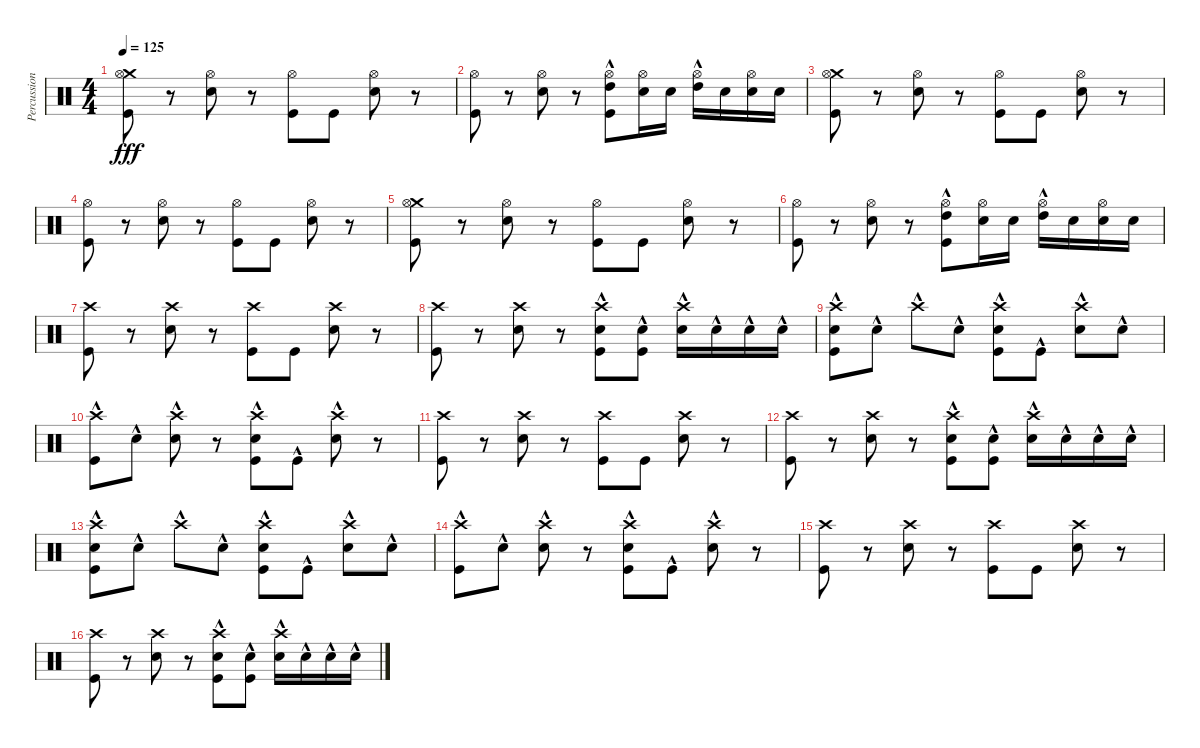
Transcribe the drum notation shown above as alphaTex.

\track ("Percussion" "Percussion") {instrument percussion}
\staff {score}
\articulation defaults
\ts (4 4)
\tempo 125
\clef neutral
\ks c
("Crash medium (hit)" "Hi-Hat (open)" "Kick (hit)").8{dy fff} r.8 ("Snare (hit) 2" "Hi-Hat (open)").8 r.8 ("Hi-Hat (open)" "Kick (hit)").8 "Kick (hit)".8 ("Snare (hit) 2" "Hi-Hat (open)").8 r.8 |
("Hi-Hat (open)" "Kick (hit)").8 r.8 ("Snare (hit) 2" "Hi-Hat (open)").8 r.8 ("High Tom (hit)"{hac} "Hi-Hat (open)" "Kick (hit)").8 ("Snare (hit) 2" "Hi-Hat (open)").16 "Snare (hit) 2".16 ("High Tom (hit)"{hac} "Hi-Hat (open)").16 "Snare (hit) 2".16 ("Snare (hit) 2" "Hi-Hat (open)").16 "Snare (hit) 2".16 |
("Crash medium (hit)" "Hi-Hat (open)" "Kick (hit)").8 r.8 ("Snare (hit) 2" "Hi-Hat (open)").8 r.8 ("Hi-Hat (open)" "Kick (hit)").8 "Kick (hit)".8 ("Snare (hit) 2" "Hi-Hat (open)").8 r.8 |
("Hi-Hat (open)" "Kick (hit)").8 r.8 ("Snare (hit) 2" "Hi-Hat (open)").8 r.8 ("Hi-Hat (open)" "Kick (hit)").8 "Kick (hit)".8 ("Snare (hit) 2" "Hi-Hat (open)").8 r.8 |
("Crash medium (hit)" "Hi-Hat (open)" "Kick (hit)").8 r.8 ("Snare (hit) 2" "Hi-Hat (open)").8 r.8 ("Hi-Hat (open)" "Kick (hit)").8 "Kick (hit)".8 ("Snare (hit) 2" "Hi-Hat (open)").8 r.8 |
("Hi-Hat (open)" "Kick (hit)").8 r.8 ("Snare (hit) 2" "Hi-Hat (open)").8 r.8 ("High Tom (hit)"{hac} "Hi-Hat (open)" "Kick (hit)").8 ("Snare (hit) 2" "Hi-Hat (open)").16 "Snare (hit) 2".16 ("High Tom (hit)"{hac} "Hi-Hat (open)").16 "Snare (hit) 2".16 ("Snare (hit) 2" "Hi-Hat (open)").16 "Snare (hit) 2".16 |
("Kick (hit)" "Crash high (hit)").8 r.8 ("Snare (hit) 2" "Crash high (hit)").8 r.8 ("Kick (hit)" "Crash high (hit)").8 "Kick (hit)".8 ("Snare (hit) 2" "Crash high (hit)").8 r.8 |
("Kick (hit)" "Crash high (hit)").8 r.8 ("Snare (hit) 2" "Crash high (hit)").8 r.8 ("Kick (hit)"{hac} "Snare (hit) 2"{hac} "Crash high (hit)"{hac}).8 ("Kick (hit)"{hac} "Snare (hit) 2"{hac}).8 ("Snare (hit) 2"{hac} "Crash high (hit)"{hac}).16 "Snare (hit) 2"{hac}.16 "Snare (hit) 2"{hac}.16 "Snare (hit) 2"{hac}.16 |
("Kick (hit)"{hac} "Snare (hit) 2"{hac} "Crash high (hit)"{hac}).8 "Snare (hit) 2"{hac}.8 "Crash high (hit)"{hac}.8 "Snare (hit) 2"{hac}.8 ("Kick (hit)"{hac} "Snare (hit) 2"{hac} "Crash high (hit)"{hac}).8 "Kick (hit)"{hac}.8 ("Snare (hit) 2"{hac} "Crash high (hit)"{hac}).8 "Snare (hit) 2"{hac}.8 |
("Kick (hit)"{hac} "Crash high (hit)"{hac}).8 "Snare (hit) 2"{hac}.8 ("Snare (hit) 2"{hac} "Crash high (hit)"{hac}).8 r.8 ("Kick (hit)"{hac} "Snare (hit) 2"{hac} "Crash high (hit)"{hac}).8 "Kick (hit)"{hac}.8 ("Snare (hit) 2"{hac} "Crash high (hit)"{hac}).8 r.8 |
("Kick (hit)" "Crash high (hit)").8 r.8 ("Snare (hit) 2" "Crash high (hit)").8 r.8 ("Kick (hit)" "Crash high (hit)").8 "Kick (hit)".8 ("Snare (hit) 2" "Crash high (hit)").8 r.8 |
("Kick (hit)" "Crash high (hit)").8 r.8 ("Snare (hit) 2" "Crash high (hit)").8 r.8 ("Kick (hit)"{hac} "Snare (hit) 2"{hac} "Crash high (hit)"{hac}).8 ("Kick (hit)"{hac} "Snare (hit) 2"{hac}).8 ("Snare (hit) 2"{hac} "Crash high (hit)"{hac}).16 "Snare (hit) 2"{hac}.16 "Snare (hit) 2"{hac}.16 "Snare (hit) 2"{hac}.16 |
("Kick (hit)"{hac} "Snare (hit) 2"{hac} "Crash high (hit)"{hac}).8 "Snare (hit) 2"{hac}.8 "Crash high (hit)"{hac}.8 "Snare (hit) 2"{hac}.8 ("Kick (hit)"{hac} "Snare (hit) 2"{hac} "Crash high (hit)"{hac}).8 "Kick (hit)"{hac}.8 ("Snare (hit) 2"{hac} "Crash high (hit)"{hac}).8 "Snare (hit) 2"{hac}.8 |
("Kick (hit)"{hac} "Crash high (hit)"{hac}).8 "Snare (hit) 2"{hac}.8 ("Snare (hit) 2"{hac} "Crash high (hit)"{hac}).8 r.8 ("Kick (hit)"{hac} "Snare (hit) 2"{hac} "Crash high (hit)"{hac}).8 "Kick (hit)"{hac}.8 ("Snare (hit) 2"{hac} "Crash high (hit)"{hac}).8 r.8 |
("Kick (hit)" "Crash high (hit)").8 r.8 ("Snare (hit) 2" "Crash high (hit)").8 r.8 ("Kick (hit)" "Crash high (hit)").8 "Kick (hit)".8 ("Snare (hit) 2" "Crash high (hit)").8 r.8 |
("Kick (hit)" "Crash high (hit)").8 r.8 ("Snare (hit) 2" "Crash high (hit)").8 r.8 ("Kick (hit)"{hac} "Snare (hit) 2"{hac} "Crash high (hit)"{hac}).8 ("Kick (hit)"{hac} "Snare (hit) 2"{hac}).8 ("Snare (hit) 2"{hac} "Crash high (hit)"{hac}).16 "Snare (hit) 2"{hac}.16 "Snare (hit) 2"{hac}.16 "Snare (hit) 2"{hac}.16
